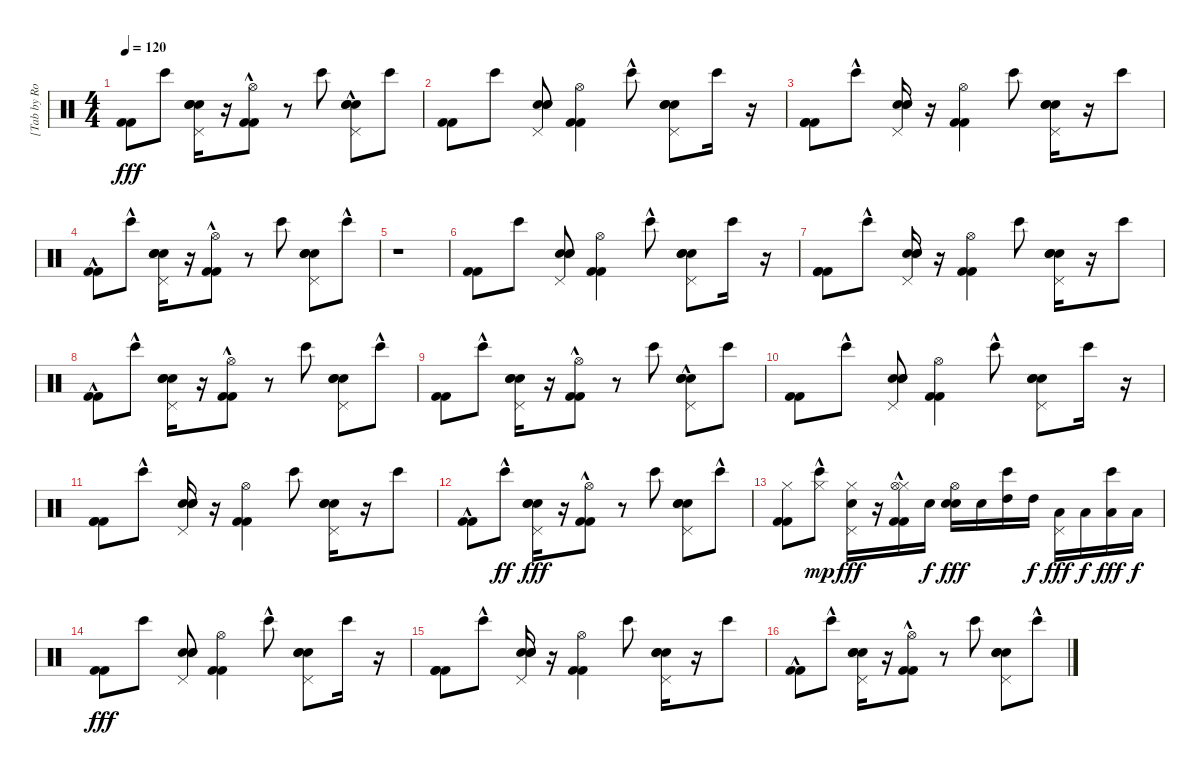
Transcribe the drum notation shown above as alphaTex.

\track ("[Tab by Rodrigo Takahashi]" "[Tab by Ro") {instrument percussion}
\staff {score}
\articulation defaults
\ts (4 4)
\tempo 120
\clef neutral
\ks c
("Kick (hit) 2" "Kick (hit) 2").8{dy fff} "Bongo High (hit)".8 ("Pedal Hi-Hat (hit)" "Electric Snare (hit)" "Snare (hit) 2" "Hand Clap (hit)").16 r.16 ("Kick (hit) 2"{hac} "Kick (hit) 2"{hac} "Hi-Hat (open)").8 r.8 "Bongo High (hit)".8 ("Snare (hit) 2" "Pedal Hi-Hat (hit)" "Electric Snare (hit)"{hac} "Hand Clap (hit)").8 "Bongo High (hit)".8 |
("Kick (hit) 2" "Kick (hit) 2").8 "Bongo High (hit)".8 ("Hand Clap (hit)" "Pedal Hi-Hat (hit)" "Electric Snare (hit)" "Snare (hit) 2").8 ("Kick (hit) 2" "Kick (hit) 2" "Hi-Hat (open)").4 "Bongo High (hit)"{hac}.8 ("Pedal Hi-Hat (hit)" "Electric Snare (hit)" "Snare (hit) 2" "Hand Clap (hit)").8 "Bongo High (hit)".16 r.16 |
("Kick (hit) 2" "Kick (hit) 2" "Kick (hit) 2").8 "Bongo High (hit)"{hac}.8 ("Pedal Hi-Hat (hit)" "Electric Snare (hit)" "Snare (hit) 2" "Hand Clap (hit)").16 r.16 ("Kick (hit) 2" "Kick (hit) 2" "Hi-Hat (open)").4 "Bongo High (hit)".8 ("Pedal Hi-Hat (hit)" "Electric Snare (hit)" "Snare (hit) 2" "Hand Clap (hit)").16 r.16 "Bongo High (hit)".8 |
("Kick (hit) 2"{hac} "Kick (hit) 2"{hac}).8 "Bongo High (hit)"{hac}.8 ("Pedal Hi-Hat (hit)" "Electric Snare (hit)" "Snare (hit) 2" "Hand Clap (hit)").16 r.16 ("Kick (hit) 2"{hac} "Kick (hit) 2"{hac} "Hi-Hat (open)").8 r.8 "Bongo High (hit)".8 ("Snare (hit) 2" "Pedal Hi-Hat (hit)" "Electric Snare (hit)" "Hand Clap (hit)").8 "Bongo High (hit)"{hac}.8 |
r.1 |
("Kick (hit) 2" "Kick (hit) 2").8 "Bongo High (hit)".8 ("Hand Clap (hit)" "Pedal Hi-Hat (hit)" "Electric Snare (hit)" "Snare (hit) 2").8 ("Kick (hit) 2" "Kick (hit) 2" "Hi-Hat (open)").4 "Bongo High (hit)"{hac}.8 ("Pedal Hi-Hat (hit)" "Electric Snare (hit)" "Snare (hit) 2" "Hand Clap (hit)").8 "Bongo High (hit)".16 r.16 |
("Kick (hit) 2" "Kick (hit) 2" "Kick (hit) 2").8 "Bongo High (hit)"{hac}.8 ("Pedal Hi-Hat (hit)" "Electric Snare (hit)" "Snare (hit) 2" "Hand Clap (hit)").16 r.16 ("Kick (hit) 2" "Kick (hit) 2" "Hi-Hat (open)").4 "Bongo High (hit)".8 ("Pedal Hi-Hat (hit)" "Electric Snare (hit)" "Snare (hit) 2" "Hand Clap (hit)").16 r.16 "Bongo High (hit)".8 |
("Kick (hit) 2"{hac} "Kick (hit) 2"{hac}).8 "Bongo High (hit)"{hac}.8 ("Pedal Hi-Hat (hit)" "Electric Snare (hit)" "Snare (hit) 2" "Hand Clap (hit)").16 r.16 ("Kick (hit) 2"{hac} "Kick (hit) 2"{hac} "Hi-Hat (open)").8 r.8 "Bongo High (hit)".8 ("Snare (hit) 2" "Pedal Hi-Hat (hit)" "Electric Snare (hit)" "Hand Clap (hit)").8 "Bongo High (hit)"{hac}.8 |
("Kick (hit) 2" "Kick (hit) 2").8 "Bongo High (hit)"{hac}.8 ("Pedal Hi-Hat (hit)" "Electric Snare (hit)" "Snare (hit) 2" "Hand Clap (hit)").16 r.16 ("Kick (hit) 2"{hac} "Kick (hit) 2"{hac} "Hi-Hat (open)").8 r.8 "Bongo High (hit)".8 ("Snare (hit) 2" "Pedal Hi-Hat (hit)" "Electric Snare (hit)"{hac} "Hand Clap (hit)").8 "Bongo High (hit)".8 |
("Kick (hit) 2" "Kick (hit) 2").8 "Bongo High (hit)"{hac}.8 ("Hand Clap (hit)" "Pedal Hi-Hat (hit)" "Electric Snare (hit)" "Snare (hit) 2").8 ("Kick (hit) 2" "Kick (hit) 2" "Hi-Hat (open)").4 "Bongo High (hit)"{hac}.8 ("Pedal Hi-Hat (hit)" "Electric Snare (hit)" "Snare (hit) 2" "Hand Clap (hit)").8 "Bongo High (hit)".16 r.16 |
("Kick (hit) 2" "Kick (hit) 2" "Kick (hit) 2").8 "Bongo High (hit)"{hac}.8 ("Pedal Hi-Hat (hit)" "Electric Snare (hit)" "Snare (hit) 2" "Hand Clap (hit)").16 r.16 ("Kick (hit) 2" "Kick (hit) 2" "Hi-Hat (open)").4 "Bongo High (hit)".8 ("Pedal Hi-Hat (hit)" "Electric Snare (hit)" "Snare (hit) 2" "Hand Clap (hit)").16 r.16 "Bongo High (hit)".8 |
("Kick (hit) 2"{hac} "Kick (hit) 2"{hac}).8 "Bongo High (hit)"{hac}.8{dy ff} ("Pedal Hi-Hat (hit)" "Electric Snare (hit)" "Snare (hit) 2" "Hand Clap (hit)").16{dy fff} r.16 ("Kick (hit) 2"{hac} "Kick (hit) 2"{hac} "Hi-Hat (open)").8 r.8 "Bongo High (hit)".8 ("Snare (hit) 2" "Pedal Hi-Hat (hit)" "Electric Snare (hit)" "Hand Clap (hit)").8 "Bongo High (hit)"{hac}.8 |
("Hi-Hat (closed)" "Kick (hit) 2" "Kick (hit) 2").8 ("Bongo High (hit)"{hac} "Hi-Hat (closed)").8{dy mp} ("Hi-Hat (closed)" "Snare (hit) 2" "Pedal Hi-Hat (hit)").16{dy fff} r.16 ("Hi-Hat (closed)" "Kick (hit) 2"{hac} "Kick (hit) 2"{hac} "Hi-Hat (open)").16 "Snare (hit) 2".16{dy f} ("Snare (hit) 2" "Hi-Hat (open)" "Snare (hit) 2").16{dy fff} "Snare (hit) 2".16 ("High Tom (hit)" "Bongo High (hit)").16 "High Tom (hit)".16{dy f} ("Low Tom (hit)" "Pedal Hi-Hat (hit)").16{dy fff} "Low Tom (hit)".16{dy f} ("Low Floor Tom (hit)" "Bongo High (hit)").16{dy fff} "Low Floor Tom (hit)".16{dy f} |
("Kick (hit) 2" "Kick (hit) 2").8{dy fff} "Bongo High (hit)".8 ("Hand Clap (hit)" "Pedal Hi-Hat (hit)" "Electric Snare (hit)" "Snare (hit) 2").8 ("Kick (hit) 2" "Kick (hit) 2" "Hi-Hat (open)").4 "Bongo High (hit)"{hac}.8 ("Pedal Hi-Hat (hit)" "Electric Snare (hit)" "Snare (hit) 2" "Hand Clap (hit)").8 "Bongo High (hit)".16 r.16 |
("Kick (hit) 2" "Kick (hit) 2" "Kick (hit) 2").8 "Bongo High (hit)"{hac}.8 ("Pedal Hi-Hat (hit)" "Electric Snare (hit)" "Snare (hit) 2" "Hand Clap (hit)").16 r.16 ("Kick (hit) 2" "Kick (hit) 2" "Hi-Hat (open)").4 "Bongo High (hit)".8 ("Pedal Hi-Hat (hit)" "Electric Snare (hit)" "Snare (hit) 2" "Hand Clap (hit)").16 r.16 "Bongo High (hit)".8 |
("Kick (hit) 2"{hac} "Kick (hit) 2"{hac}).8 "Bongo High (hit)"{hac}.8 ("Pedal Hi-Hat (hit)" "Electric Snare (hit)" "Snare (hit) 2" "Hand Clap (hit)").16 r.16 ("Kick (hit) 2"{hac} "Kick (hit) 2"{hac} "Hi-Hat (open)").8 r.8 "Bongo High (hit)".8 ("Snare (hit) 2" "Pedal Hi-Hat (hit)" "Electric Snare (hit)" "Hand Clap (hit)").8 "Bongo High (hit)"{hac}.8
